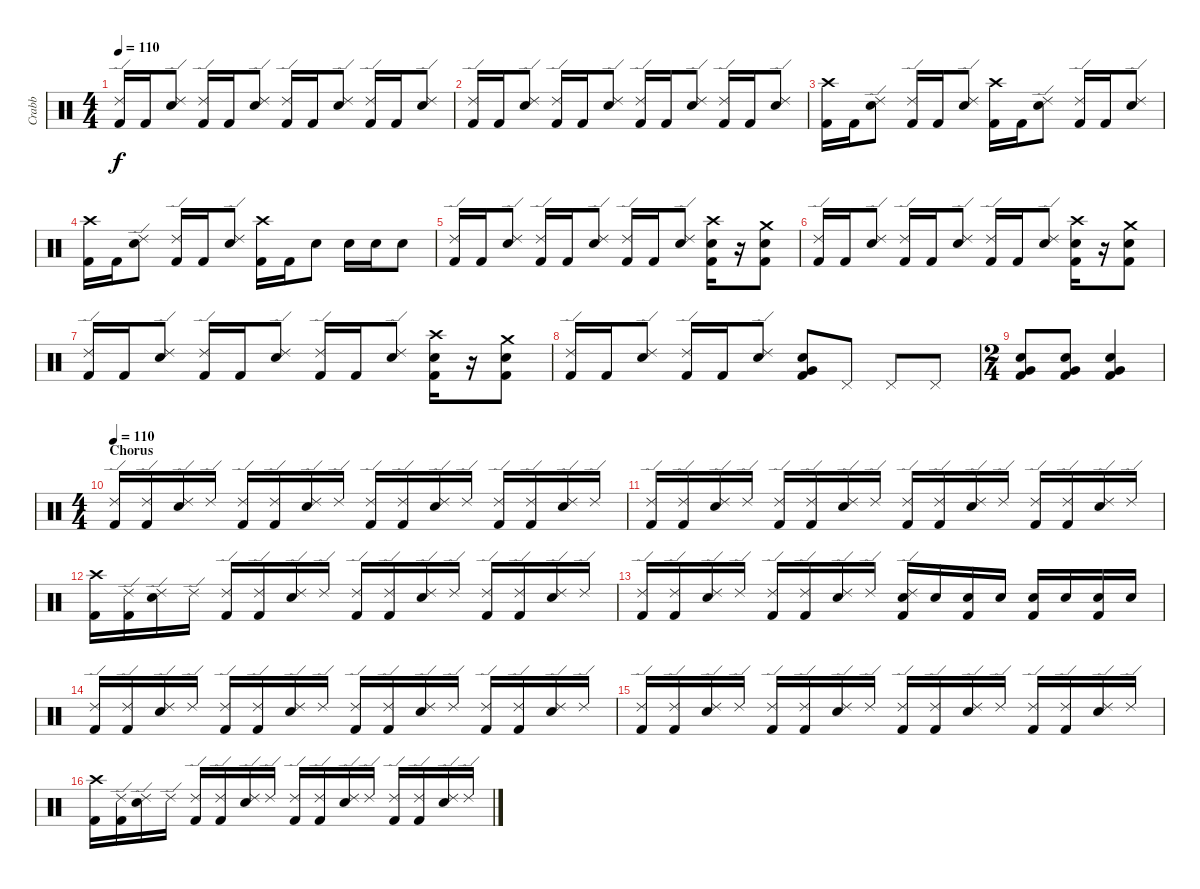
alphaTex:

\track ("Crabb" "Crabb") {instrument percussion}
\staff {score}
\articulation defaults
\ts (4 4)
\tempo 110
\clef neutral
\ks c
("Ride (edge) 2" "Kick (hit) 2").16{dy f} "Kick (hit) 2".16 ("Ride (edge) 2" "Electric Snare (hit)").8 ("Ride (edge) 2" "Kick (hit) 2").16 "Kick (hit) 2".16 ("Ride (edge) 2" "Electric Snare (hit)").8 ("Ride (edge) 2" "Kick (hit) 2").16 "Kick (hit) 2".16 ("Ride (edge) 2" "Electric Snare (hit)").8 ("Ride (edge) 2" "Kick (hit) 2").16 "Kick (hit) 2".16 ("Ride (edge) 2" "Electric Snare (hit)").8 |
("Ride (edge) 2" "Kick (hit) 2").16 "Kick (hit) 2".16 ("Ride (edge) 2" "Electric Snare (hit)").8 ("Ride (edge) 2" "Kick (hit) 2").16 "Kick (hit) 2".16 ("Ride (edge) 2" "Electric Snare (hit)").8 ("Ride (edge) 2" "Kick (hit) 2").16 "Kick (hit) 2".16 ("Ride (edge) 2" "Electric Snare (hit)").8 ("Ride (edge) 2" "Kick (hit) 2").16 "Kick (hit) 2".16 ("Ride (edge) 2" "Electric Snare (hit)").8 |
("Crash high (hit)" "Kick (hit) 2").16 "Kick (hit) 2".16 ("Ride (edge) 2" "Electric Snare (hit)").8 ("Ride (edge) 2" "Kick (hit) 2").16 "Kick (hit) 2".16 ("Ride (edge) 2" "Electric Snare (hit)").8 ("Crash high (hit)" "Kick (hit) 2").16 "Kick (hit) 2".16 ("Ride (edge) 2" "Electric Snare (hit)").8 ("Ride (edge) 2" "Kick (hit) 2").16 "Kick (hit) 2".16 ("Ride (edge) 2" "Electric Snare (hit)").8 |
("Crash high (hit)" "Kick (hit) 2").16 "Kick (hit) 2".16 ("Ride (edge) 2" "Electric Snare (hit)").8 ("Ride (edge) 2" "Kick (hit) 2").16 "Kick (hit) 2".16 ("Ride (edge) 2" "Electric Snare (hit)").8 ("Crash high (hit)" "Kick (hit) 2").16 "Kick (hit) 2".16 "Electric Snare (hit)".8 "Electric Snare (hit)".16 "Electric Snare (hit)".16 "Electric Snare (hit)".8 |
("Ride (edge) 2" "Kick (hit) 2").16 "Kick (hit) 2".16 ("Ride (edge) 2" "Electric Snare (hit)").8 ("Ride (edge) 2" "Kick (hit) 2").16 "Kick (hit) 2".16 ("Ride (edge) 2" "Electric Snare (hit)").8 ("Ride (edge) 2" "Kick (hit) 2").16 "Kick (hit) 2".16 ("Ride (edge) 2" "Electric Snare (hit)").8 ("Crash high (hit)" "Electric Snare (hit)" "Kick (hit) 2").16 r.16 ("Crash medium (hit)" "Electric Snare (hit)" "Kick (hit) 2").8 |
("Ride (edge) 2" "Kick (hit) 2").16 "Kick (hit) 2".16 ("Ride (edge) 2" "Electric Snare (hit)").8 ("Ride (edge) 2" "Kick (hit) 2").16 "Kick (hit) 2".16 ("Ride (edge) 2" "Electric Snare (hit)").8 ("Ride (edge) 2" "Kick (hit) 2").16 "Kick (hit) 2".16 ("Ride (edge) 2" "Electric Snare (hit)").8 ("Crash high (hit)" "Electric Snare (hit)" "Kick (hit) 2").16 r.16 ("Crash medium (hit)" "Electric Snare (hit)" "Kick (hit) 2").8 |
("Ride (edge) 2" "Kick (hit) 2").16 "Kick (hit) 2".16 ("Ride (edge) 2" "Electric Snare (hit)").8 ("Ride (edge) 2" "Kick (hit) 2").16 "Kick (hit) 2".16 ("Ride (edge) 2" "Electric Snare (hit)").8 ("Ride (edge) 2" "Kick (hit) 2").16 "Kick (hit) 2".16 ("Ride (edge) 2" "Electric Snare (hit)").8 ("Crash high (hit)" "Electric Snare (hit)" "Kick (hit) 2").16 r.16 ("Crash medium (hit)" "Electric Snare (hit)" "Kick (hit) 2").8 |
("Ride (edge) 2" "Kick (hit) 2").16 "Kick (hit) 2".16 ("Ride (edge) 2" "Electric Snare (hit)").8 ("Ride (edge) 2" "Kick (hit) 2").16 "Kick (hit) 2".16 ("Ride (edge) 2" "Electric Snare (hit)").8 ("Electric Snare (hit)" "Kick (hit) 2" "Very Low Tom (hit)").8 "Pedal Hi-Hat (hit)".8 "Pedal Hi-Hat (hit)".8 "Pedal Hi-Hat (hit)".8 |
\ts (2 4)
("Very Low Tom (hit)" "Kick (hit) 2" "Electric Snare (hit)").8 ("Very Low Tom (hit)" "Kick (hit) 2" "Electric Snare (hit)").8 ("Very Low Tom (hit)" "Kick (hit) 2" "Electric Snare (hit)").4 |
\ts (4 4)
\section ("" "Chorus")
\tempo 110
("Ride (edge) 2" "Kick (hit) 2").16 ("Ride (edge) 2" "Kick (hit) 2").16 ("Ride (edge) 2" "Electric Snare (hit)").16 "Ride (edge) 2".16 ("Ride (edge) 2" "Kick (hit) 2").16 ("Ride (edge) 2" "Kick (hit) 2").16 ("Ride (edge) 2" "Electric Snare (hit)").16 "Ride (edge) 2".16 ("Ride (edge) 2" "Kick (hit) 2").16 ("Ride (edge) 2" "Kick (hit) 2").16 ("Ride (edge) 2" "Electric Snare (hit)").16 "Ride (edge) 2".16 ("Ride (edge) 2" "Kick (hit) 2").16 ("Ride (edge) 2" "Kick (hit) 2").16 ("Ride (edge) 2" "Electric Snare (hit)").16 "Ride (edge) 2".16 |
("Ride (edge) 2" "Kick (hit) 2").16 ("Ride (edge) 2" "Kick (hit) 2").16 ("Ride (edge) 2" "Electric Snare (hit)").16 "Ride (edge) 2".16 ("Ride (edge) 2" "Kick (hit) 2").16 ("Ride (edge) 2" "Kick (hit) 2").16 ("Ride (edge) 2" "Electric Snare (hit)").16 "Ride (edge) 2".16 ("Ride (edge) 2" "Kick (hit) 2").16 ("Ride (edge) 2" "Kick (hit) 2").16 ("Ride (edge) 2" "Electric Snare (hit)").16 "Ride (edge) 2".16 ("Ride (edge) 2" "Kick (hit) 2").16 ("Ride (edge) 2" "Kick (hit) 2").16 ("Ride (edge) 2" "Electric Snare (hit)").16 "Ride (edge) 2".16 |
("Crash high (hit)" "Kick (hit) 2").16 ("Ride (edge) 2" "Kick (hit) 2").16 ("Ride (edge) 2" "Electric Snare (hit)").16 "Ride (edge) 2".16 ("Ride (edge) 2" "Kick (hit) 2").16 ("Ride (edge) 2" "Kick (hit) 2").16 ("Ride (edge) 2" "Electric Snare (hit)").16 "Ride (edge) 2".16 ("Ride (edge) 2" "Kick (hit) 2").16 ("Ride (edge) 2" "Kick (hit) 2").16 ("Ride (edge) 2" "Electric Snare (hit)").16 "Ride (edge) 2".16 ("Ride (edge) 2" "Kick (hit) 2").16 ("Ride (edge) 2" "Kick (hit) 2").16 ("Ride (edge) 2" "Electric Snare (hit)").16 "Ride (edge) 2".16 |
("Ride (edge) 2" "Kick (hit) 2").16 ("Ride (edge) 2" "Kick (hit) 2").16 ("Ride (edge) 2" "Electric Snare (hit)").16 "Ride (edge) 2".16 ("Ride (edge) 2" "Kick (hit) 2").16 ("Ride (edge) 2" "Kick (hit) 2").16 ("Ride (edge) 2" "Electric Snare (hit)").16 "Ride (edge) 2".16 ("Ride (edge) 2" "Electric Snare (hit)" "Kick (hit) 2").16 "Electric Snare (hit)".16 ("Electric Snare (hit)" "Kick (hit) 2").16 "Electric Snare (hit)".16 ("Electric Snare (hit)" "Kick (hit) 2").16 "Electric Snare (hit)".16 ("Electric Snare (hit)" "Kick (hit) 2").16 "Electric Snare (hit)".16 |
("Ride (edge) 2" "Kick (hit) 2").16 ("Ride (edge) 2" "Kick (hit) 2").16 ("Ride (edge) 2" "Electric Snare (hit)").16 "Ride (edge) 2".16 ("Ride (edge) 2" "Kick (hit) 2").16 ("Ride (edge) 2" "Kick (hit) 2").16 ("Ride (edge) 2" "Electric Snare (hit)").16 "Ride (edge) 2".16 ("Ride (edge) 2" "Kick (hit) 2").16 ("Ride (edge) 2" "Kick (hit) 2").16 ("Ride (edge) 2" "Electric Snare (hit)").16 "Ride (edge) 2".16 ("Ride (edge) 2" "Kick (hit) 2").16 ("Ride (edge) 2" "Kick (hit) 2").16 ("Ride (edge) 2" "Electric Snare (hit)").16 "Ride (edge) 2".16 |
("Ride (edge) 2" "Kick (hit) 2").16 ("Ride (edge) 2" "Kick (hit) 2").16 ("Ride (edge) 2" "Electric Snare (hit)").16 "Ride (edge) 2".16 ("Ride (edge) 2" "Kick (hit) 2").16 ("Ride (edge) 2" "Kick (hit) 2").16 ("Ride (edge) 2" "Electric Snare (hit)").16 "Ride (edge) 2".16 ("Ride (edge) 2" "Kick (hit) 2").16 ("Ride (edge) 2" "Kick (hit) 2").16 ("Ride (edge) 2" "Electric Snare (hit)").16 "Ride (edge) 2".16 ("Ride (edge) 2" "Kick (hit) 2").16 ("Ride (edge) 2" "Kick (hit) 2").16 ("Ride (edge) 2" "Electric Snare (hit)").16 "Ride (edge) 2".16 |
("Crash high (hit)" "Kick (hit) 2").16 ("Ride (edge) 2" "Kick (hit) 2").16 ("Ride (edge) 2" "Electric Snare (hit)").16 "Ride (edge) 2".16 ("Ride (edge) 2" "Kick (hit) 2").16 ("Ride (edge) 2" "Kick (hit) 2").16 ("Ride (edge) 2" "Electric Snare (hit)").16 "Ride (edge) 2".16 ("Ride (edge) 2" "Kick (hit) 2").16 ("Ride (edge) 2" "Kick (hit) 2").16 ("Ride (edge) 2" "Electric Snare (hit)").16 "Ride (edge) 2".16 ("Ride (edge) 2" "Kick (hit) 2").16 ("Ride (edge) 2" "Kick (hit) 2").16 ("Ride (edge) 2" "Electric Snare (hit)").16 "Ride (edge) 2".16
